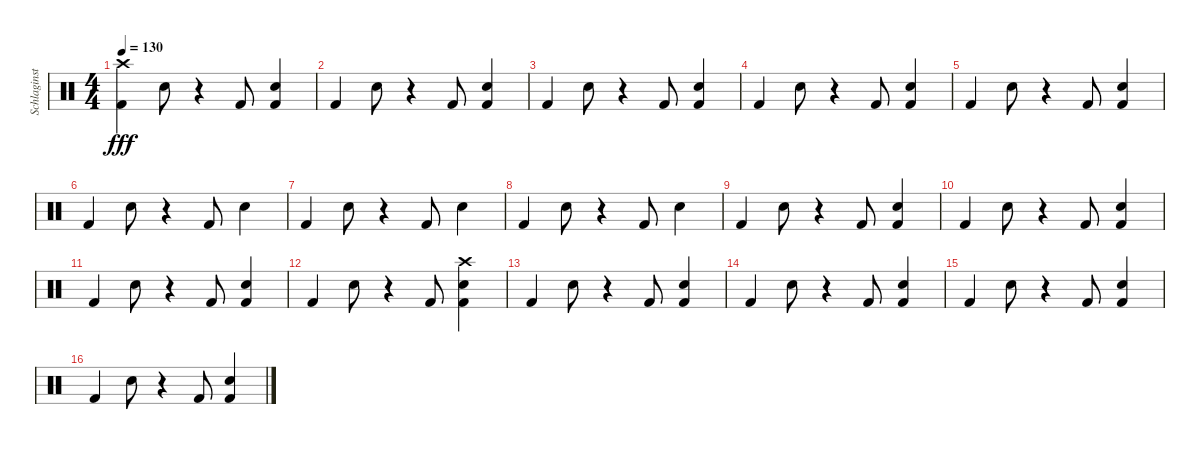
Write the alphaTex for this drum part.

\track ("Schlaginstrumente - Auswahl" "Schlaginst") {instrument percussion}
\staff {score}
\articulation defaults
\ts (4 4)
\tempo 130
\clef neutral
\ks c
("Crash high (hit)" "Kick (hit) 2").4{dy fff} "Snare (hit) 2".8 r.4 "Kick (hit) 2".8 ("Snare (hit) 2" "Kick (hit) 2").4 |
"Kick (hit) 2".4 "Snare (hit) 2".8 r.4 "Kick (hit) 2".8 ("Snare (hit) 2" "Kick (hit) 2").4 |
"Kick (hit) 2".4 "Snare (hit) 2".8 r.4 "Kick (hit) 2".8 ("Snare (hit) 2" "Kick (hit) 2").4 |
"Kick (hit) 2".4 "Snare (hit) 2".8 r.4 "Kick (hit) 2".8 ("Snare (hit) 2" "Kick (hit) 2").4 |
"Kick (hit) 2".4 "Snare (hit) 2".8 r.4 "Kick (hit) 2".8 ("Snare (hit) 2" "Kick (hit) 2").4 |
"Kick (hit) 2".4 "Snare (hit) 2".8 r.4 "Kick (hit) 2".8 "Snare (hit) 2".4 |
"Kick (hit) 2".4 "Snare (hit) 2".8 r.4 "Kick (hit) 2".8 "Snare (hit) 2".4 |
"Kick (hit) 2".4 "Snare (hit) 2".8 r.4 "Kick (hit) 2".8 "Snare (hit) 2".4 |
"Kick (hit) 2".4 "Snare (hit) 2".8 r.4 "Kick (hit) 2".8 ("Snare (hit) 2" "Kick (hit) 2").4 |
"Kick (hit) 2".4 "Snare (hit) 2".8 r.4 "Kick (hit) 2".8 ("Snare (hit) 2" "Kick (hit) 2").4 |
"Kick (hit) 2".4 "Snare (hit) 2".8 r.4 "Kick (hit) 2".8 ("Snare (hit) 2" "Kick (hit) 2").4 |
"Kick (hit) 2".4 "Snare (hit) 2".8 r.4 "Kick (hit) 2".8 ("Crash high (hit)" "Snare (hit) 2" "Kick (hit) 2").4 |
"Kick (hit) 2".4 "Snare (hit) 2".8 r.4 "Kick (hit) 2".8 ("Snare (hit) 2" "Kick (hit) 2").4 |
"Kick (hit) 2".4 "Snare (hit) 2".8 r.4 "Kick (hit) 2".8 ("Snare (hit) 2" "Kick (hit) 2").4 |
"Kick (hit) 2".4 "Snare (hit) 2".8 r.4 "Kick (hit) 2".8 ("Snare (hit) 2" "Kick (hit) 2").4 |
"Kick (hit) 2".4 "Snare (hit) 2".8 r.4 "Kick (hit) 2".8 ("Snare (hit) 2" "Kick (hit) 2").4
